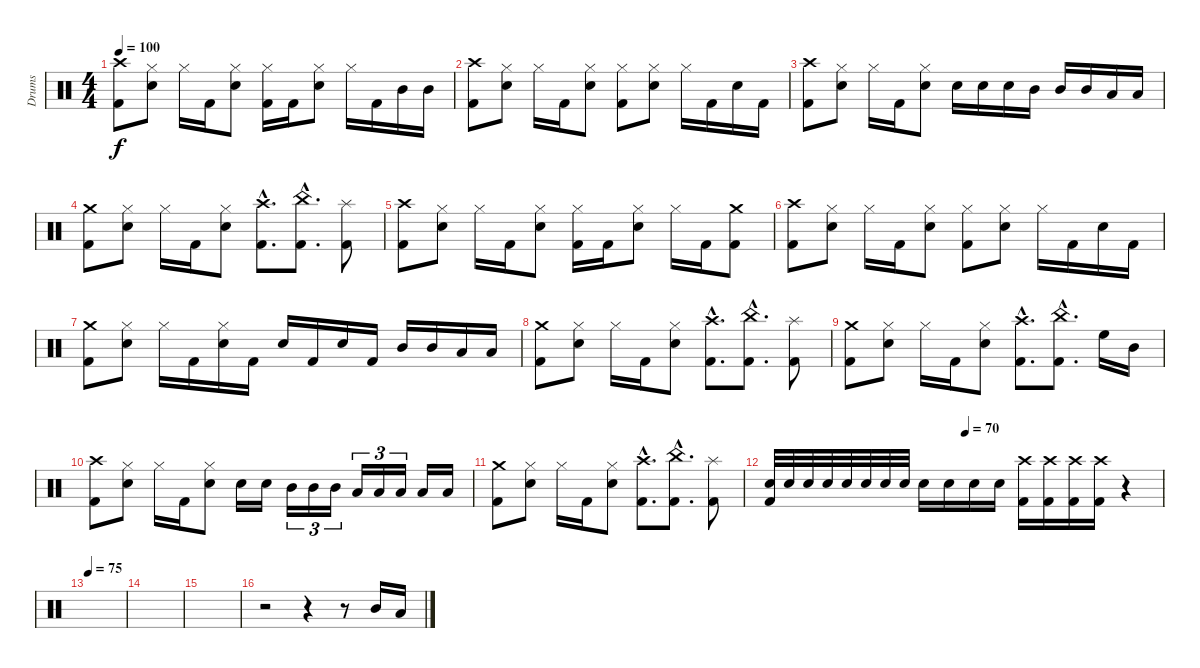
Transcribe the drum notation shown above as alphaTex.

\track ("Drums" "Drums") {instrument percussion}
\staff {score}
\articulation defaults
\ts (4 4)
\tempo 100
\clef neutral
\ks c
("Crash high (hit)" "Kick (hit) 2").8{dy f} ("Hi-Hat (closed)" "Snare (hit) 2").8 "Hi-Hat (closed)".16 "Kick (hit) 2".16 ("Hi-Hat (closed)" "Snare (hit) 2").8 ("Hi-Hat (closed)" "Kick (hit) 2").16 "Kick (hit) 2".16 ("Hi-Hat (closed)" "Snare (hit) 2").8 "Hi-Hat (closed)".16 "Kick (hit) 2".16 "Mid Tom (hit)".16 "Mid Tom (hit)".16 |
("Crash high (hit)" "Kick (hit) 2").8 ("Hi-Hat (closed)" "Snare (hit) 2").8 "Hi-Hat (closed)".16 "Kick (hit) 2".16 ("Hi-Hat (closed)" "Snare (hit) 2").8 ("Hi-Hat (closed)" "Kick (hit) 2").8 ("Hi-Hat (closed)" "Snare (hit) 2").8 "Hi-Hat (closed)".16 "Kick (hit) 2".16 "Snare (hit) 2".16 "Kick (hit) 2".16 |
("Crash high (hit)" "Kick (hit) 2").8 ("Hi-Hat (closed)" "Snare (hit) 2").8 "Hi-Hat (closed)".16 "Kick (hit) 2".16 ("Hi-Hat (closed)" "Snare (hit) 2").8 "Snare (hit) 2".16 "Snare (hit) 2".16 "Snare (hit) 2".16 "Mid Tom (hit)".16 "Mid Tom (hit)".16 "Mid Tom (hit)".16 "Low Tom (hit)".16 "Low Tom (hit)".16 |
("Crash medium (hit)" "Kick (hit) 2").8 ("Snare (hit) 2" "Hi-Hat (closed)").8 "Hi-Hat (closed)".16 "Kick (hit) 2".16 ("Hi-Hat (closed)" "Snare (hit) 2").8 ("Crash high (hit)"{hac} "Kick (hit) 2"{hac}).8{d} ("Kick (hit) 2"{hac} "China (hit)"{hac}).8{d} ("Splash (hit)" "Kick (hit) 2").8 |
("Crash high (hit)" "Kick (hit) 2").8 ("Hi-Hat (closed)" "Snare (hit) 2").8 "Hi-Hat (closed)".16 "Kick (hit) 2".16 ("Hi-Hat (closed)" "Snare (hit) 2").8 ("Hi-Hat (closed)" "Kick (hit) 2").16 "Kick (hit) 2".16 ("Hi-Hat (closed)" "Snare (hit) 2").8 "Hi-Hat (closed)".16 "Kick (hit) 2".16 ("Crash medium (hit)" "Kick (hit) 2").8 |
("Crash high (hit)" "Kick (hit) 2").8 ("Hi-Hat (closed)" "Snare (hit) 2").8 "Hi-Hat (closed)".16 "Kick (hit) 2".16 ("Hi-Hat (closed)" "Snare (hit) 2").8 ("Hi-Hat (closed)" "Kick (hit) 2").8 ("Hi-Hat (closed)" "Snare (hit) 2").8 "Hi-Hat (closed)".16 "Kick (hit) 2".16 "Snare (hit) 2".16 "Kick (hit) 2".16 |
("Crash medium (hit)" "Kick (hit) 2").8 ("Hi-Hat (closed)" "Snare (hit) 2").8 "Hi-Hat (closed)".16 "Kick (hit) 2".16 ("Hi-Hat (closed)" "Snare (hit) 2").16 "Kick (hit) 2".16 "Snare (hit) 2".16 "Kick (hit) 2".16 "Snare (hit) 2".16 "Kick (hit) 2".16 "Mid Tom (hit)".16 "Mid Tom (hit)".16 "Low Tom (hit)".16 "Low Tom (hit)".16 |
("Crash medium (hit)" "Kick (hit) 2").8 ("Snare (hit) 2" "Hi-Hat (closed)").8 "Hi-Hat (closed)".16 "Kick (hit) 2".16 ("Hi-Hat (closed)" "Snare (hit) 2").8 ("Crash high (hit)"{hac} "Kick (hit) 2"{hac}).8{d} ("Kick (hit) 2"{hac} "China (hit)"{hac}).8{d} ("Splash (hit)" "Kick (hit) 2").8 |
("Crash medium (hit)" "Kick (hit) 2").8 ("Snare (hit) 2" "Hi-Hat (closed)").8 "Hi-Hat (closed)".16 "Kick (hit) 2".16 ("Hi-Hat (closed)" "Snare (hit) 2").8 ("Crash high (hit)"{hac} "Kick (hit) 2"{hac}).8{d} ("Kick (hit) 2"{hac} "China (hit)"{hac}).8{d} "High Floor Tom (hit)".16 "Mid Tom (hit)".16 |
("Crash high (hit)" "Kick (hit) 2").8 ("Hi-Hat (closed)" "Snare (hit) 2").8 "Hi-Hat (closed)".16 "Kick (hit) 2".16 ("Hi-Hat (closed)" "Snare (hit) 2").8 "Snare (hit) 2".16 "Snare (hit) 2".16 "Mid Tom (hit)".16{tu (3 2)} "Mid Tom (hit)".16{tu (3 2)} "Mid Tom (hit)".16{tu (3 2)} "Low Tom (hit)".16{tu (3 2)} "Low Tom (hit)".16{tu (3 2)} "Low Tom (hit)".16{tu (3 2)} "Low Tom (hit)".16 "Low Tom (hit)".16 |
("Crash medium (hit)" "Kick (hit) 2").8 ("Snare (hit) 2" "Hi-Hat (closed)").8 "Hi-Hat (closed)".16 "Kick (hit) 2".16 ("Hi-Hat (closed)" "Snare (hit) 2").8 ("Crash high (hit)"{hac} "Kick (hit) 2"{hac}).8{d} ("Kick (hit) 2"{hac} "China (hit)"{hac}).8{d} ("Splash (hit)" "Kick (hit) 2").8 |
\tempo (70 0.5)
("Snare (hit) 2" "Kick (hit) 2").32 "Snare (hit) 2".32 "Snare (hit) 2".32 "Snare (hit) 2".32 "Snare (hit) 2".32 "Snare (hit) 2".32 "Snare (hit) 2".32 "Snare (hit) 2".32 "Snare (hit) 2".16 "Snare (hit) 2".16 "Snare (hit) 2".16 "Snare (hit) 2".16 ("Crash high (hit)" "Kick (hit) 2").16 ("Crash high (hit)" "Kick (hit) 2").16 ("Crash high (hit)" "Kick (hit) 2").16 ("Crash high (hit)" "Kick (hit) 2").16 r.4 |
\tempo 75
|
|
|
r.2 r.4 r.8 "Mid Tom (hit)".16 "Low Tom (hit)".16
